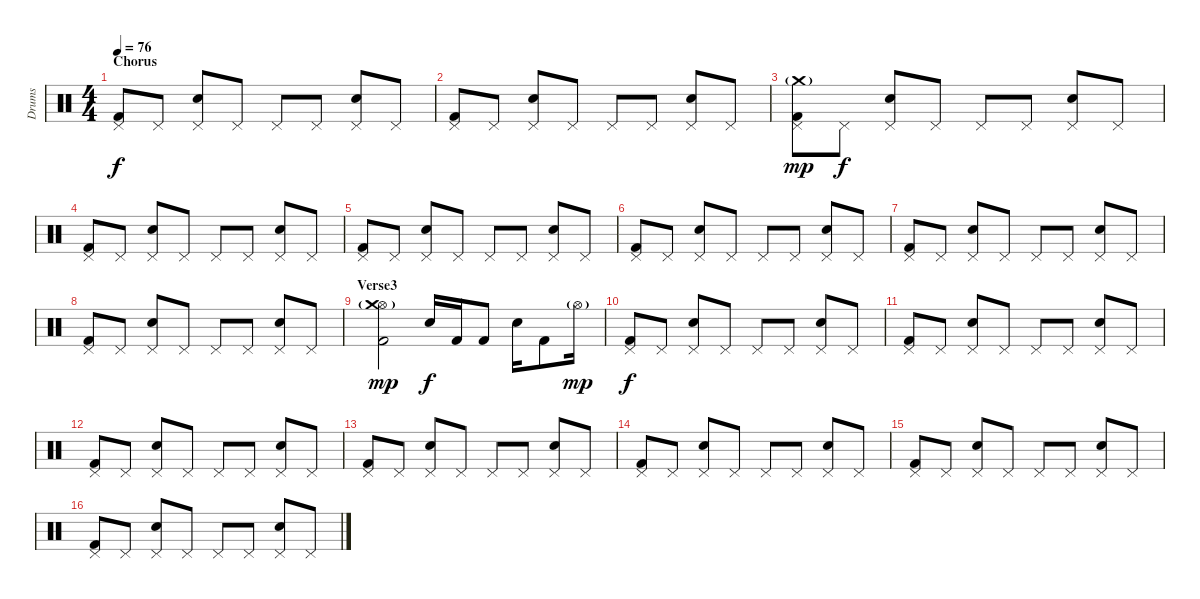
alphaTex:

\track ("Drums" "Drums") {instrument percussion}
\staff {score}
\articulation defaults
\ts (4 4)
\section ("" "Chorus")
\tempo 76
\clef neutral
\ks c
("Pedal Hi-Hat (hit)" "Kick (hit) 2").8{dy f} "Pedal Hi-Hat (hit)".8 ("Pedal Hi-Hat (hit)" "Electric Snare (hit)").8 "Pedal Hi-Hat (hit)".8 "Pedal Hi-Hat (hit)".8 "Pedal Hi-Hat (hit)".8 ("Pedal Hi-Hat (hit)" "Electric Snare (hit)").8 "Pedal Hi-Hat (hit)".8 |
("Pedal Hi-Hat (hit)" "Kick (hit) 2").8 "Pedal Hi-Hat (hit)".8 ("Pedal Hi-Hat (hit)" "Electric Snare (hit)").8 "Pedal Hi-Hat (hit)".8 "Pedal Hi-Hat (hit)".8 "Pedal Hi-Hat (hit)".8 ("Pedal Hi-Hat (hit)" "Electric Snare (hit)").8 "Pedal Hi-Hat (hit)".8 |
("Crash medium (hit)"{g} "Pedal Hi-Hat (hit)" "Kick (hit) 2").8{dy mp} "Pedal Hi-Hat (hit)".8{dy f} ("Pedal Hi-Hat (hit)" "Electric Snare (hit)").8 "Pedal Hi-Hat (hit)".8 "Pedal Hi-Hat (hit)".8 "Pedal Hi-Hat (hit)".8 ("Pedal Hi-Hat (hit)" "Electric Snare (hit)").8 "Pedal Hi-Hat (hit)".8 |
("Pedal Hi-Hat (hit)" "Kick (hit) 2").8 "Pedal Hi-Hat (hit)".8 ("Pedal Hi-Hat (hit)" "Electric Snare (hit)").8 "Pedal Hi-Hat (hit)".8 "Pedal Hi-Hat (hit)".8 "Pedal Hi-Hat (hit)".8 ("Pedal Hi-Hat (hit)" "Electric Snare (hit)").8 "Pedal Hi-Hat (hit)".8 |
("Pedal Hi-Hat (hit)" "Kick (hit) 2").8 "Pedal Hi-Hat (hit)".8 ("Pedal Hi-Hat (hit)" "Electric Snare (hit)").8 "Pedal Hi-Hat (hit)".8 "Pedal Hi-Hat (hit)".8 "Pedal Hi-Hat (hit)".8 ("Pedal Hi-Hat (hit)" "Electric Snare (hit)").8 "Pedal Hi-Hat (hit)".8 |
("Pedal Hi-Hat (hit)" "Kick (hit) 2").8 "Pedal Hi-Hat (hit)".8 ("Pedal Hi-Hat (hit)" "Electric Snare (hit)").8 "Pedal Hi-Hat (hit)".8 "Pedal Hi-Hat (hit)".8 "Pedal Hi-Hat (hit)".8 ("Pedal Hi-Hat (hit)" "Electric Snare (hit)").8 "Pedal Hi-Hat (hit)".8 |
("Pedal Hi-Hat (hit)" "Kick (hit) 2").8 "Pedal Hi-Hat (hit)".8 ("Pedal Hi-Hat (hit)" "Electric Snare (hit)").8 "Pedal Hi-Hat (hit)".8 "Pedal Hi-Hat (hit)".8 "Pedal Hi-Hat (hit)".8 ("Pedal Hi-Hat (hit)" "Electric Snare (hit)").8 "Pedal Hi-Hat (hit)".8 |
("Pedal Hi-Hat (hit)" "Kick (hit) 2").8 "Pedal Hi-Hat (hit)".8 ("Pedal Hi-Hat (hit)" "Electric Snare (hit)").8 "Pedal Hi-Hat (hit)".8 "Pedal Hi-Hat (hit)".8 "Pedal Hi-Hat (hit)".8 ("Pedal Hi-Hat (hit)" "Electric Snare (hit)").8 "Pedal Hi-Hat (hit)".8 |
\section ("" "Verse3")
("Hi-Hat (open)"{g} "Crash medium (hit)"{g} "Kick (hit) 2").2{dy mp} "Electric Snare (hit)".16{dy f} "Kick (hit) 2".16 "Kick (hit) 2".8 "Electric Snare (hit)".16 "Kick (hit) 2".8 "Hi-Hat (open)"{g}.16{dy mp} |
("Pedal Hi-Hat (hit)" "Kick (hit) 2").8{dy f} "Pedal Hi-Hat (hit)".8 ("Pedal Hi-Hat (hit)" "Electric Snare (hit)").8 "Pedal Hi-Hat (hit)".8 "Pedal Hi-Hat (hit)".8 "Pedal Hi-Hat (hit)".8 ("Pedal Hi-Hat (hit)" "Electric Snare (hit)").8 "Pedal Hi-Hat (hit)".8 |
("Pedal Hi-Hat (hit)" "Kick (hit) 2").8 "Pedal Hi-Hat (hit)".8 ("Pedal Hi-Hat (hit)" "Electric Snare (hit)").8 "Pedal Hi-Hat (hit)".8 "Pedal Hi-Hat (hit)".8 "Pedal Hi-Hat (hit)".8 ("Pedal Hi-Hat (hit)" "Electric Snare (hit)").8 "Pedal Hi-Hat (hit)".8 |
("Pedal Hi-Hat (hit)" "Kick (hit) 2").8 "Pedal Hi-Hat (hit)".8 ("Pedal Hi-Hat (hit)" "Electric Snare (hit)").8 "Pedal Hi-Hat (hit)".8 "Pedal Hi-Hat (hit)".8 "Pedal Hi-Hat (hit)".8 ("Pedal Hi-Hat (hit)" "Electric Snare (hit)").8 "Pedal Hi-Hat (hit)".8 |
("Pedal Hi-Hat (hit)" "Kick (hit) 2").8 "Pedal Hi-Hat (hit)".8 ("Pedal Hi-Hat (hit)" "Electric Snare (hit)").8 "Pedal Hi-Hat (hit)".8 "Pedal Hi-Hat (hit)".8 "Pedal Hi-Hat (hit)".8 ("Pedal Hi-Hat (hit)" "Electric Snare (hit)").8 "Pedal Hi-Hat (hit)".8 |
("Pedal Hi-Hat (hit)" "Kick (hit) 2").8 "Pedal Hi-Hat (hit)".8 ("Pedal Hi-Hat (hit)" "Electric Snare (hit)").8 "Pedal Hi-Hat (hit)".8 "Pedal Hi-Hat (hit)".8 "Pedal Hi-Hat (hit)".8 ("Pedal Hi-Hat (hit)" "Electric Snare (hit)").8 "Pedal Hi-Hat (hit)".8 |
("Pedal Hi-Hat (hit)" "Kick (hit) 2").8 "Pedal Hi-Hat (hit)".8 ("Pedal Hi-Hat (hit)" "Electric Snare (hit)").8 "Pedal Hi-Hat (hit)".8 "Pedal Hi-Hat (hit)".8 "Pedal Hi-Hat (hit)".8 ("Pedal Hi-Hat (hit)" "Electric Snare (hit)").8 "Pedal Hi-Hat (hit)".8 |
("Pedal Hi-Hat (hit)" "Kick (hit) 2").8 "Pedal Hi-Hat (hit)".8 ("Pedal Hi-Hat (hit)" "Electric Snare (hit)").8 "Pedal Hi-Hat (hit)".8 "Pedal Hi-Hat (hit)".8 "Pedal Hi-Hat (hit)".8 ("Pedal Hi-Hat (hit)" "Electric Snare (hit)").8 "Pedal Hi-Hat (hit)".8
